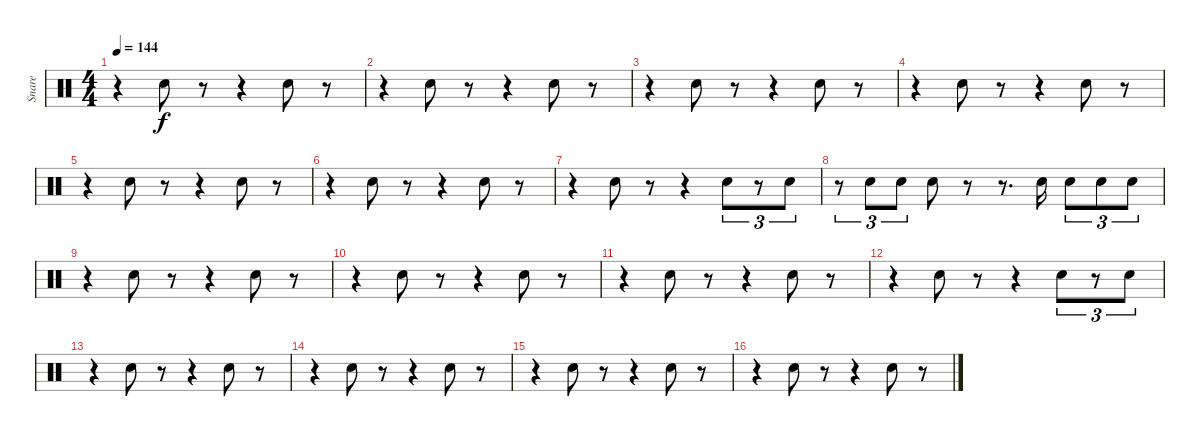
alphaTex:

\track ("Snare" "Snare") {instrument percussion}
\staff {score}
\articulation defaults
\ts (4 4)
\tempo 144
\clef neutral
\ks c
r.4{dy f} "Snare (hit) 2".8 r.8 r.4 "Snare (hit) 2".8 r.8 |
r.4 "Snare (hit) 2".8 r.8 r.4 "Snare (hit) 2".8 r.8 |
r.4 "Snare (hit) 2".8 r.8 r.4 "Snare (hit) 2".8 r.8 |
r.4 "Snare (hit) 2".8 r.8 r.4 "Snare (hit) 2".8 r.8 |
r.4 "Snare (hit) 2".8 r.8 r.4 "Snare (hit) 2".8 r.8 |
r.4 "Snare (hit) 2".8 r.8 r.4 "Snare (hit) 2".8 r.8 |
r.4 "Snare (hit) 2".8 r.8 r.4 "Snare (hit) 2".8{tu (3 2)} r.8{tu (3 2)} "Snare (hit) 2".8{tu (3 2)} |
r.8{tu (3 2)} "Snare (hit) 2".8{tu (3 2)} "Snare (hit) 2".8{tu (3 2)} "Snare (hit) 2".8 r.8 r.8{d} "Snare (hit) 2".16 "Snare (hit) 2".8{tu (3 2)} "Snare (hit) 2".8{tu (3 2)} "Snare (hit) 2".8{tu (3 2)} |
r.4 "Snare (hit) 2".8 r.8 r.4 "Snare (hit) 2".8 r.8 |
r.4 "Snare (hit) 2".8 r.8 r.4 "Snare (hit) 2".8 r.8 |
r.4 "Snare (hit) 2".8 r.8 r.4 "Snare (hit) 2".8 r.8 |
r.4 "Snare (hit) 2".8 r.8 r.4 "Snare (hit) 2".8{tu (3 2)} r.8{tu (3 2)} "Snare (hit) 2".8{tu (3 2)} |
r.4 "Snare (hit) 2".8 r.8 r.4 "Snare (hit) 2".8 r.8 |
r.4 "Snare (hit) 2".8 r.8 r.4 "Snare (hit) 2".8 r.8 |
r.4 "Snare (hit) 2".8 r.8 r.4 "Snare (hit) 2".8 r.8 |
r.4 "Snare (hit) 2".8 r.8 r.4 "Snare (hit) 2".8 r.8
